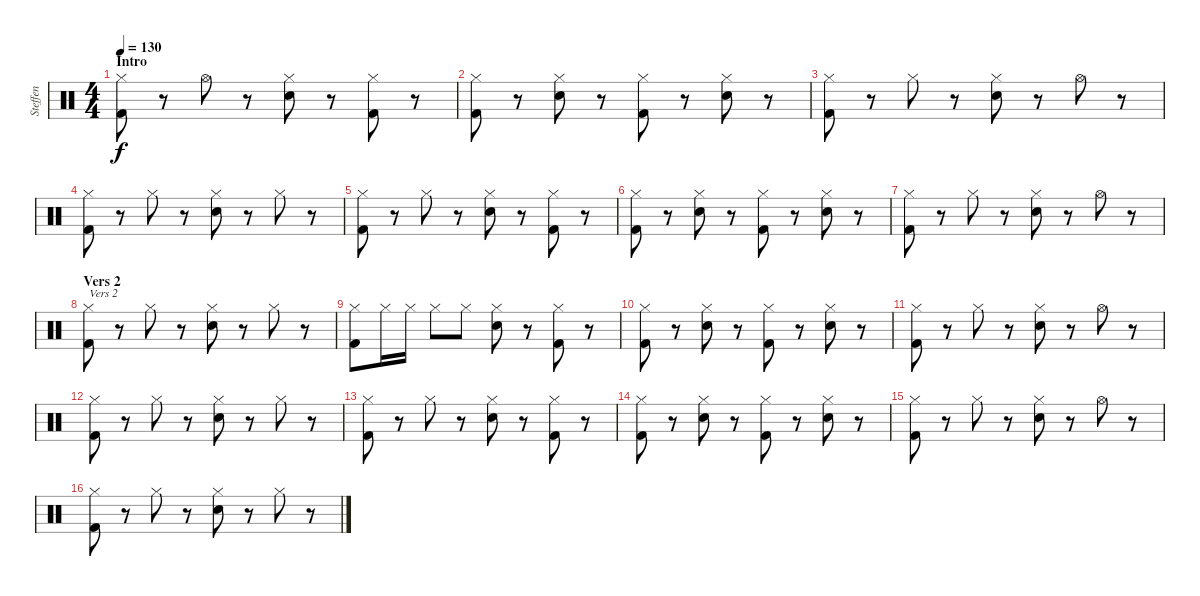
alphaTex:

\track ("Steffen" "Steffen") {instrument percussion}
\staff {score}
\articulation defaults
\ts (4 4)
\section ("" "Intro")
\tempo 130
\clef neutral
\ks c
("Hi-Hat (closed)" "Kick (hit) 2").8{dy f} r.8 "Hi-Hat (open)".8 r.8 ("Hi-Hat (closed)" "Snare (hit) 2").8 r.8 ("Hi-Hat (closed)" "Kick (hit) 2").8 r.8 |
("Hi-Hat (closed)" "Kick (hit) 2").8 r.8 ("Hi-Hat (closed)" "Snare (hit) 2").8 r.8 ("Hi-Hat (closed)" "Kick (hit) 2").8 r.8 ("Hi-Hat (closed)" "Snare (hit) 2").8 r.8 |
("Hi-Hat (closed)" "Kick (hit) 2").8 r.8 "Hi-Hat (closed)".8 r.8 ("Hi-Hat (closed)" "Snare (hit) 2").8 r.8 "Hi-Hat (open)".8 r.8 |
("Hi-Hat (closed)" "Kick (hit) 2").8 r.8 "Hi-Hat (closed)".8 r.8 ("Hi-Hat (closed)" "Snare (hit) 2").8 r.8 "Hi-Hat (closed)".8 r.8 |
("Hi-Hat (closed)" "Kick (hit) 2").8 r.8 "Hi-Hat (closed)".8 r.8 ("Hi-Hat (closed)" "Snare (hit) 2").8 r.8 ("Hi-Hat (closed)" "Kick (hit) 2").8 r.8 |
("Hi-Hat (closed)" "Kick (hit) 2").8 r.8 ("Hi-Hat (closed)" "Snare (hit) 2").8 r.8 ("Hi-Hat (closed)" "Kick (hit) 2").8 r.8 ("Hi-Hat (closed)" "Snare (hit) 2").8 r.8 |
("Hi-Hat (closed)" "Kick (hit) 2").8 r.8 "Hi-Hat (closed)".8 r.8 ("Hi-Hat (closed)" "Snare (hit) 2").8 r.8 "Hi-Hat (open)".8 r.8 |
\section ("" "Vers 2")
("Hi-Hat (closed)" "Kick (hit) 2").8{txt "Vers 2"} r.8 "Hi-Hat (closed)".8 r.8 ("Hi-Hat (closed)" "Snare (hit) 2").8 r.8 "Hi-Hat (closed)".8 r.8 |
("Hi-Hat (closed)" "Kick (hit) 2").8 "Hi-Hat (closed)".16 "Hi-Hat (closed)".16 "Hi-Hat (closed)".8 "Hi-Hat (closed)".8 ("Hi-Hat (closed)" "Snare (hit) 2").8 r.8 ("Hi-Hat (closed)" "Kick (hit) 2").8 r.8 |
("Hi-Hat (closed)" "Kick (hit) 2").8 r.8 ("Hi-Hat (closed)" "Snare (hit) 2").8 r.8 ("Hi-Hat (closed)" "Kick (hit) 2").8 r.8 ("Hi-Hat (closed)" "Snare (hit) 2").8 r.8 |
("Hi-Hat (closed)" "Kick (hit) 2").8 r.8 "Hi-Hat (closed)".8 r.8 ("Hi-Hat (closed)" "Snare (hit) 2").8 r.8 "Hi-Hat (open)".8 r.8 |
("Hi-Hat (closed)" "Kick (hit) 2").8 r.8 "Hi-Hat (closed)".8 r.8 ("Hi-Hat (closed)" "Snare (hit) 2").8 r.8 "Hi-Hat (closed)".8 r.8 |
("Hi-Hat (closed)" "Kick (hit) 2").8 r.8 "Hi-Hat (closed)".8 r.8 ("Hi-Hat (closed)" "Snare (hit) 2").8 r.8 ("Hi-Hat (closed)" "Kick (hit) 2").8 r.8 |
("Hi-Hat (closed)" "Kick (hit) 2").8 r.8 ("Hi-Hat (closed)" "Snare (hit) 2").8 r.8 ("Hi-Hat (closed)" "Kick (hit) 2").8 r.8 ("Hi-Hat (closed)" "Snare (hit) 2").8 r.8 |
("Hi-Hat (closed)" "Kick (hit) 2").8 r.8 "Hi-Hat (closed)".8 r.8 ("Hi-Hat (closed)" "Snare (hit) 2").8 r.8 "Hi-Hat (open)".8 r.8 |
("Hi-Hat (closed)" "Kick (hit) 2").8 r.8 "Hi-Hat (closed)".8 r.8 ("Hi-Hat (closed)" "Snare (hit) 2").8 r.8 "Hi-Hat (closed)".8 r.8
